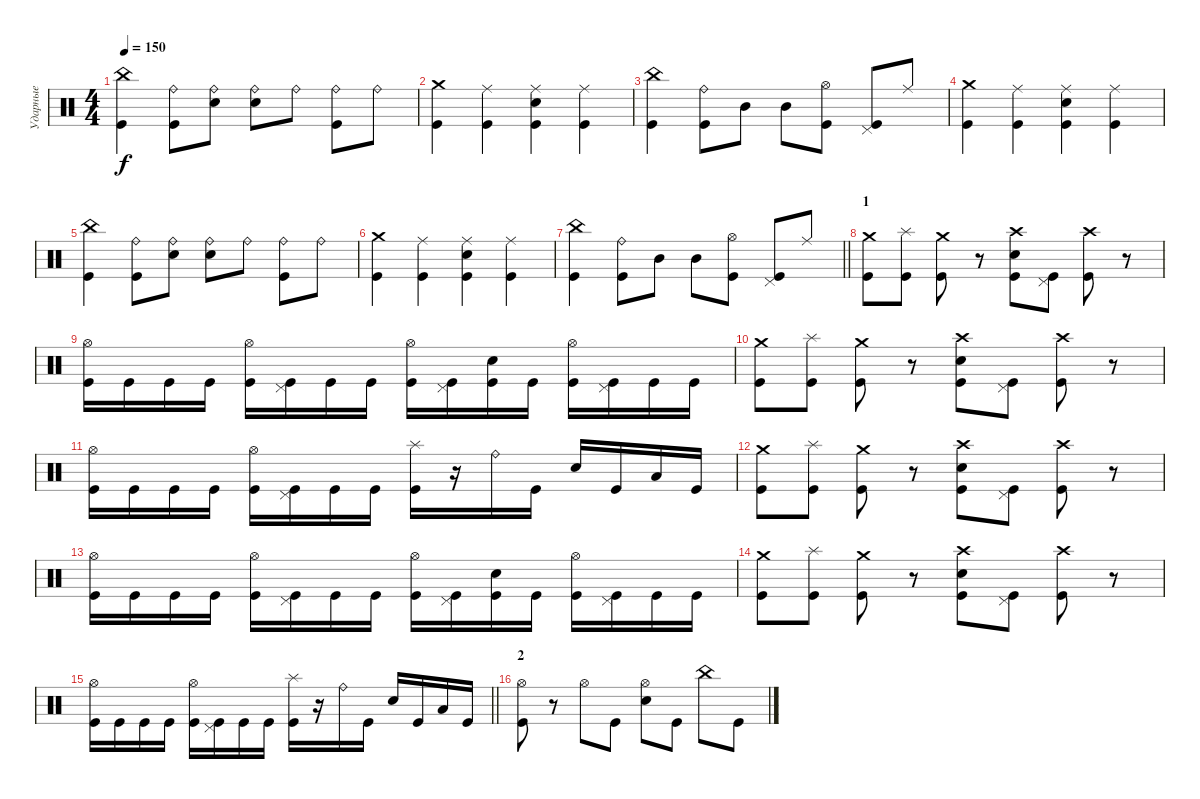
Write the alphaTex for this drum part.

\track ("Ударные" "Ударные") {instrument percussion}
\staff {score}
\articulation defaults
\ts (4 4)
\tempo 150
\clef neutral
\ks c
("China (hit)" "Kick (hit)").4{dy f} ("Ride (bell)" "Kick (hit)").8 ("Ride (bell)" "Electric Snare (hit)").8 ("Ride (bell)" "Electric Snare (hit)").8 "Ride (bell)".8 ("Ride (bell)" "Kick (hit)").8 "Ride (bell)".8 |
("Crash medium (hit)" "Kick (hit)").4 ("Ride (middle)" "Kick (hit)").4 ("Ride (middle)" "Electric Snare (hit)" "Kick (hit)").4 ("Ride (middle)" "Kick (hit)").4 |
("China (hit)" "Kick (hit)").4 ("Ride (bell)" "Kick (hit)").8 "Mid Tom (hit)".8 "Mid Tom (hit)".8 ("Hi-Hat (open)" "Kick (hit)").8 ("Pedal Hi-Hat (hit)" "Kick (hit)").8 "Ride (middle)".8 |
("Crash medium (hit)" "Kick (hit)").4 ("Ride (middle)" "Kick (hit)").4 ("Ride (middle)" "Electric Snare (hit)" "Kick (hit)").4 ("Ride (middle)" "Kick (hit)").4 |
("China (hit)" "Kick (hit)").4 ("Ride (bell)" "Kick (hit)").8 ("Ride (bell)" "Electric Snare (hit)").8 ("Ride (bell)" "Electric Snare (hit)").8 "Ride (bell)".8 ("Ride (bell)" "Kick (hit)").8 "Ride (bell)".8 |
("Crash medium (hit)" "Kick (hit)").4 ("Ride (middle)" "Kick (hit)").4 ("Ride (middle)" "Electric Snare (hit)" "Kick (hit)").4 ("Ride (middle)" "Kick (hit)").4 |
\barLineRight lightlight
("China (hit)" "Kick (hit)").4 ("Ride (bell)" "Kick (hit)").8 "Mid Tom (hit)".8 "Mid Tom (hit)".8 ("Hi-Hat (open)" "Kick (hit)").8 ("Pedal Hi-Hat (hit)" "Kick (hit)").8 "Ride (middle)".8 |
\section ("" "1")
("Crash medium (hit)" "Kick (hit)").8 ("Splash (hit)" "Kick (hit)").8 ("Crash medium (hit)" "Kick (hit)").8 r.8 ("Crash high (hit)" "Electric Snare (hit)" "Kick (hit)").8 ("Pedal Hi-Hat (hit)" "Kick (hit)").8 ("Crash high (hit)" "Kick (hit)").8 r.8 |
("Hi-Hat (open)" "Kick (hit)").16 "Kick (hit)".16 "Kick (hit)".16 "Kick (hit)".16 ("Hi-Hat (open)" "Kick (hit)").16 ("Pedal Hi-Hat (hit)" "Kick (hit)").16 "Kick (hit)".16 "Kick (hit)".16 ("Hi-Hat (open)" "Kick (hit)").16 ("Pedal Hi-Hat (hit)" "Kick (hit)").16 ("Electric Snare (hit)" "Kick (hit)").16 "Kick (hit)".16 ("Hi-Hat (open)" "Kick (hit)").16 ("Pedal Hi-Hat (hit)" "Kick (hit)").16 "Kick (hit)".16 "Kick (hit)".16 |
("Crash medium (hit)" "Kick (hit)").8 ("Splash (hit)" "Kick (hit)").8 ("Crash medium (hit)" "Kick (hit)").8 r.8 ("Crash high (hit)" "Electric Snare (hit)" "Kick (hit)").8 ("Pedal Hi-Hat (hit)" "Kick (hit)").8 ("Crash high (hit)" "Kick (hit)").8 r.8 |
("Hi-Hat (open)" "Kick (hit)").16 "Kick (hit)".16 "Kick (hit)".16 "Kick (hit)".16 ("Hi-Hat (open)" "Kick (hit)").16 ("Pedal Hi-Hat (hit)" "Kick (hit)").16 "Kick (hit)".16 "Kick (hit)".16 ("Splash (hit)" "Kick (hit)").16 r.16 "Ride (bell)".16 "Kick (hit)".16 "Electric Snare (hit)".16 "Kick (hit)".16 "Low Tom (hit)".16 "Kick (hit)".16 |
("Crash medium (hit)" "Kick (hit)").8 ("Splash (hit)" "Kick (hit)").8 ("Crash medium (hit)" "Kick (hit)").8 r.8 ("Crash high (hit)" "Electric Snare (hit)" "Kick (hit)").8 ("Pedal Hi-Hat (hit)" "Kick (hit)").8 ("Crash high (hit)" "Kick (hit)").8 r.8 |
("Hi-Hat (open)" "Kick (hit)").16 "Kick (hit)".16 "Kick (hit)".16 "Kick (hit)".16 ("Hi-Hat (open)" "Kick (hit)").16 ("Pedal Hi-Hat (hit)" "Kick (hit)").16 "Kick (hit)".16 "Kick (hit)".16 ("Hi-Hat (open)" "Kick (hit)").16 ("Pedal Hi-Hat (hit)" "Kick (hit)").16 ("Electric Snare (hit)" "Kick (hit)").16 "Kick (hit)".16 ("Hi-Hat (open)" "Kick (hit)").16 ("Pedal Hi-Hat (hit)" "Kick (hit)").16 "Kick (hit)".16 "Kick (hit)".16 |
("Crash medium (hit)" "Kick (hit)").8 ("Splash (hit)" "Kick (hit)").8 ("Crash medium (hit)" "Kick (hit)").8 r.8 ("Crash high (hit)" "Electric Snare (hit)" "Kick (hit)").8 ("Pedal Hi-Hat (hit)" "Kick (hit)").8 ("Crash high (hit)" "Kick (hit)").8 r.8 |
\barLineRight lightlight
("Hi-Hat (open)" "Kick (hit)").16 "Kick (hit)".16 "Kick (hit)".16 "Kick (hit)".16 ("Hi-Hat (open)" "Kick (hit)").16 ("Pedal Hi-Hat (hit)" "Kick (hit)").16 "Kick (hit)".16 "Kick (hit)".16 ("Splash (hit)" "Kick (hit)").16 r.16 "Ride (bell)".16 "Kick (hit)".16 "Electric Snare (hit)".16 "Kick (hit)".16 "Low Tom (hit)".16 "Kick (hit)".16 |
\section ("" "2")
("Hi-Hat (open)" "Kick (hit)").8 r.8 "Hi-Hat (open)".8 "Kick (hit)".8 ("Hi-Hat (open)" "Electric Snare (hit)").8 "Kick (hit)".8 "China (hit)".8 "Kick (hit)".8
